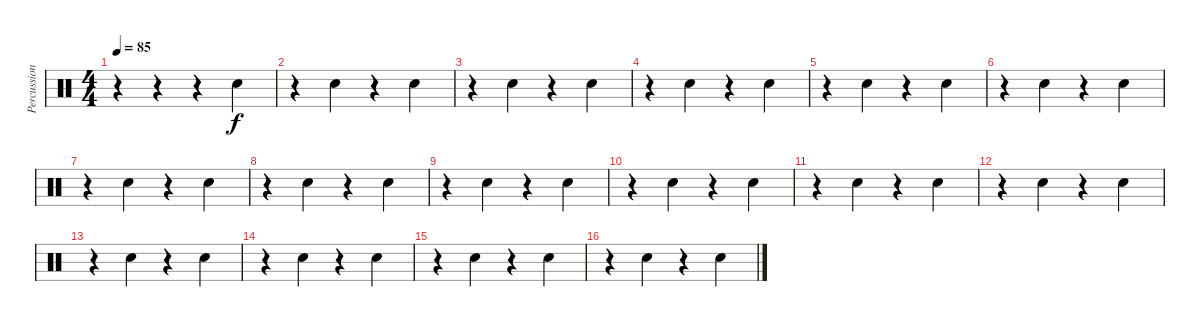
\track ("Percussions" "Percussion") {instrument percussion}
\staff {score}
\articulation defaults
\ts (4 4)
\tempo 85
\clef neutral
\ks c
r.4{dy f} r.4 r.4 "Hand Clap (hit)".4 |
r.4 "Hand Clap (hit)".4 r.4 "Hand Clap (hit)".4 |
r.4 "Hand Clap (hit)".4 r.4 "Hand Clap (hit)".4 |
r.4 "Hand Clap (hit)".4 r.4 "Hand Clap (hit)".4 |
r.4 "Hand Clap (hit)".4 r.4 "Hand Clap (hit)".4 |
r.4 "Hand Clap (hit)".4 r.4 "Hand Clap (hit)".4 |
r.4 "Hand Clap (hit)".4 r.4 "Hand Clap (hit)".4 |
r.4 "Hand Clap (hit)".4 r.4 "Hand Clap (hit)".4 |
r.4 "Hand Clap (hit)".4 r.4 "Hand Clap (hit)".4 |
r.4 "Hand Clap (hit)".4 r.4 "Hand Clap (hit)".4 |
r.4 "Hand Clap (hit)".4 r.4 "Hand Clap (hit)".4 |
r.4 "Hand Clap (hit)".4 r.4 "Hand Clap (hit)".4 |
r.4 "Hand Clap (hit)".4 r.4 "Hand Clap (hit)".4 |
r.4 "Hand Clap (hit)".4 r.4 "Hand Clap (hit)".4 |
r.4 "Hand Clap (hit)".4 r.4 "Hand Clap (hit)".4 |
r.4 "Hand Clap (hit)".4 r.4 "Hand Clap (hit)".4
